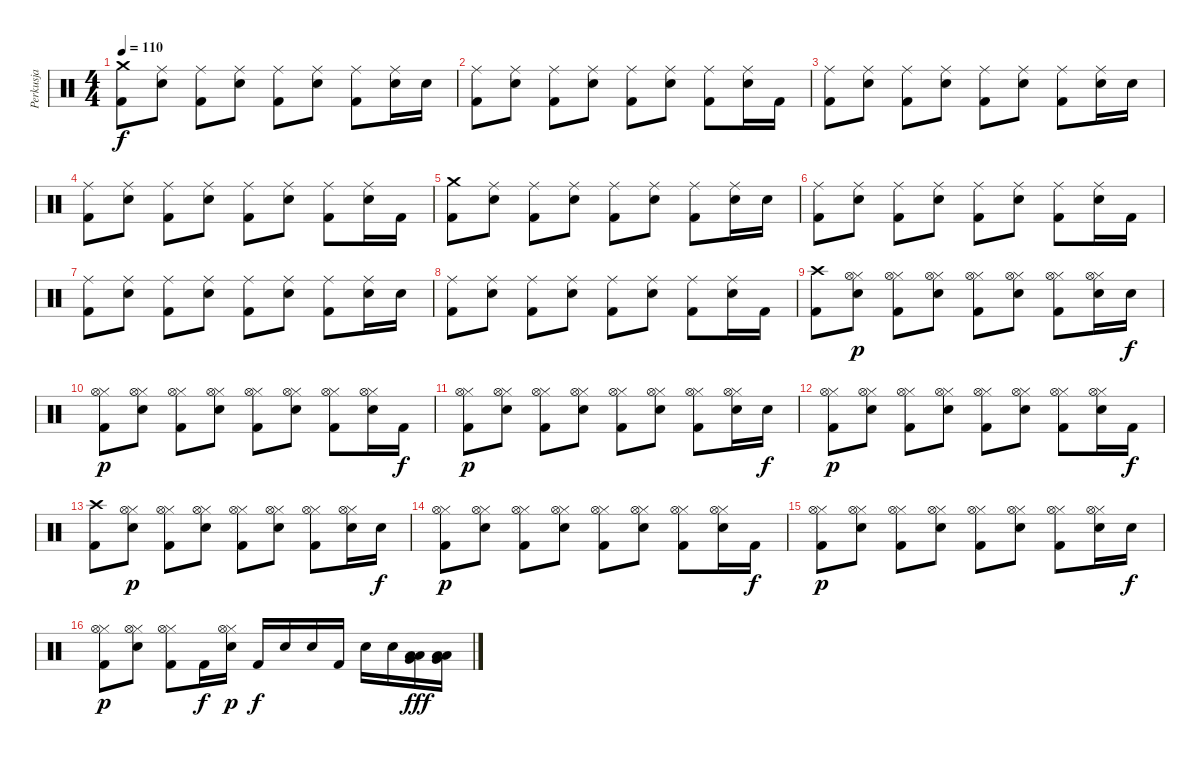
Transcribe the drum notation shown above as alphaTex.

\track ("Perkusja" "Perkusja") {instrument percussion}
\staff {score}
\articulation defaults
\ts (4 4)
\tempo 110
\clef neutral
\ks c
("Kick (hit) 2" "Crash medium (hit)").8{dy f} ("Electric Snare (hit)" "Ride (middle)").8 ("Kick (hit) 2" "Ride (middle)").8 ("Electric Snare (hit)" "Ride (middle)").8 ("Kick (hit) 2" "Ride (middle)").8 ("Electric Snare (hit)" "Ride (middle)").8 ("Kick (hit) 2" "Ride (middle)").8 ("Electric Snare (hit)" "Ride (middle)").16 "Electric Snare (hit)".16 |
("Kick (hit) 2" "Ride (middle)").8 ("Electric Snare (hit)" "Ride (middle)").8 ("Kick (hit) 2" "Ride (middle)").8 ("Electric Snare (hit)" "Ride (middle)").8 ("Kick (hit) 2" "Ride (middle)").8 ("Electric Snare (hit)" "Ride (middle)").8 ("Kick (hit) 2" "Ride (middle)").8 ("Electric Snare (hit)" "Ride (middle)").16 "Kick (hit) 2".16 |
("Kick (hit) 2" "Ride (middle)").8 ("Electric Snare (hit)" "Ride (middle)").8 ("Kick (hit) 2" "Ride (middle)").8 ("Electric Snare (hit)" "Ride (middle)").8 ("Kick (hit) 2" "Ride (middle)").8 ("Electric Snare (hit)" "Ride (middle)").8 ("Kick (hit) 2" "Ride (middle)").8 ("Electric Snare (hit)" "Ride (middle)").16 "Electric Snare (hit)".16 |
("Kick (hit) 2" "Ride (middle)").8 ("Electric Snare (hit)" "Ride (middle)").8 ("Kick (hit) 2" "Ride (middle)").8 ("Electric Snare (hit)" "Ride (middle)").8 ("Kick (hit) 2" "Ride (middle)").8 ("Electric Snare (hit)" "Ride (middle)").8 ("Kick (hit) 2" "Ride (middle)").8 ("Electric Snare (hit)" "Ride (middle)").16 "Kick (hit) 2".16 |
("Kick (hit) 2" "Crash medium (hit)").8 ("Electric Snare (hit)" "Ride (middle)").8 ("Kick (hit) 2" "Ride (middle)").8 ("Electric Snare (hit)" "Ride (middle)").8 ("Kick (hit) 2" "Ride (middle)").8 ("Electric Snare (hit)" "Ride (middle)").8 ("Kick (hit) 2" "Ride (middle)").8 ("Electric Snare (hit)" "Ride (middle)").16 "Electric Snare (hit)".16 |
("Kick (hit) 2" "Ride (middle)").8 ("Electric Snare (hit)" "Ride (middle)").8 ("Kick (hit) 2" "Ride (middle)").8 ("Electric Snare (hit)" "Ride (middle)").8 ("Kick (hit) 2" "Ride (middle)").8 ("Electric Snare (hit)" "Ride (middle)").8 ("Kick (hit) 2" "Ride (middle)").8 ("Electric Snare (hit)" "Ride (middle)").16 "Kick (hit) 2".16 |
("Kick (hit) 2" "Ride (middle)").8 ("Electric Snare (hit)" "Ride (middle)").8 ("Kick (hit) 2" "Ride (middle)").8 ("Electric Snare (hit)" "Ride (middle)").8 ("Kick (hit) 2" "Ride (middle)").8 ("Electric Snare (hit)" "Ride (middle)").8 ("Kick (hit) 2" "Ride (middle)").8 ("Electric Snare (hit)" "Ride (middle)").16 "Electric Snare (hit)".16 |
("Kick (hit) 2" "Ride (middle)").8 ("Electric Snare (hit)" "Ride (middle)").8 ("Kick (hit) 2" "Ride (middle)").8 ("Electric Snare (hit)" "Ride (middle)").8 ("Kick (hit) 2" "Ride (middle)").8 ("Electric Snare (hit)" "Ride (middle)").8 ("Kick (hit) 2" "Ride (middle)").8 ("Electric Snare (hit)" "Ride (middle)").16 "Kick (hit) 2".16 |
("Kick (hit) 2" "Crash high (hit)").8 ("Electric Snare (hit)" "Hi-Hat (closed)" "Hi-Hat (open)").8{dy p} ("Kick (hit) 2" "Hi-Hat (closed)" "Hi-Hat (open)").8 ("Electric Snare (hit)" "Hi-Hat (closed)" "Hi-Hat (open)").8 ("Kick (hit) 2" "Hi-Hat (closed)" "Hi-Hat (open)").8 ("Electric Snare (hit)" "Hi-Hat (closed)" "Hi-Hat (open)").8 ("Kick (hit) 2" "Hi-Hat (closed)" "Hi-Hat (open)").8 ("Electric Snare (hit)" "Hi-Hat (closed)" "Hi-Hat (open)").16 "Electric Snare (hit)".16{dy f} |
("Kick (hit) 2" "Hi-Hat (closed)" "Hi-Hat (open)").8{dy p} ("Electric Snare (hit)" "Hi-Hat (closed)" "Hi-Hat (open)").8 ("Kick (hit) 2" "Hi-Hat (closed)" "Hi-Hat (open)").8 ("Electric Snare (hit)" "Hi-Hat (closed)" "Hi-Hat (open)").8 ("Kick (hit) 2" "Hi-Hat (closed)" "Hi-Hat (open)").8 ("Electric Snare (hit)" "Hi-Hat (closed)" "Hi-Hat (open)").8 ("Kick (hit) 2" "Hi-Hat (closed)" "Hi-Hat (open)").8 ("Electric Snare (hit)" "Hi-Hat (closed)" "Hi-Hat (open)").16 "Kick (hit) 2".16{dy f} |
("Kick (hit) 2" "Hi-Hat (closed)" "Hi-Hat (open)").8{dy p} ("Electric Snare (hit)" "Hi-Hat (closed)" "Hi-Hat (open)").8 ("Kick (hit) 2" "Hi-Hat (closed)" "Hi-Hat (open)").8 ("Electric Snare (hit)" "Hi-Hat (closed)" "Hi-Hat (open)").8 ("Kick (hit) 2" "Hi-Hat (closed)" "Hi-Hat (open)").8 ("Electric Snare (hit)" "Hi-Hat (closed)" "Hi-Hat (open)").8 ("Kick (hit) 2" "Hi-Hat (closed)" "Hi-Hat (open)").8 ("Electric Snare (hit)" "Hi-Hat (closed)" "Hi-Hat (open)").16 "Electric Snare (hit)".16{dy f} |
("Kick (hit) 2" "Hi-Hat (closed)" "Hi-Hat (open)").8{dy p} ("Electric Snare (hit)" "Hi-Hat (closed)" "Hi-Hat (open)").8 ("Kick (hit) 2" "Hi-Hat (closed)" "Hi-Hat (open)").8 ("Electric Snare (hit)" "Hi-Hat (closed)" "Hi-Hat (open)").8 ("Kick (hit) 2" "Hi-Hat (closed)" "Hi-Hat (open)").8 ("Electric Snare (hit)" "Hi-Hat (closed)" "Hi-Hat (open)").8 ("Kick (hit) 2" "Hi-Hat (closed)" "Hi-Hat (open)").8 ("Electric Snare (hit)" "Hi-Hat (closed)" "Hi-Hat (open)").16 "Kick (hit) 2".16{dy f} |
("Kick (hit) 2" "Crash high (hit)").8 ("Electric Snare (hit)" "Hi-Hat (closed)" "Hi-Hat (open)").8{dy p} ("Kick (hit) 2" "Hi-Hat (closed)" "Hi-Hat (open)").8 ("Electric Snare (hit)" "Hi-Hat (closed)" "Hi-Hat (open)").8 ("Kick (hit) 2" "Hi-Hat (closed)" "Hi-Hat (open)").8 ("Electric Snare (hit)" "Hi-Hat (closed)" "Hi-Hat (open)").8 ("Kick (hit) 2" "Hi-Hat (closed)" "Hi-Hat (open)").8 ("Electric Snare (hit)" "Hi-Hat (closed)" "Hi-Hat (open)").16 "Electric Snare (hit)".16{dy f} |
("Kick (hit) 2" "Hi-Hat (closed)" "Hi-Hat (open)").8{dy p} ("Electric Snare (hit)" "Hi-Hat (closed)" "Hi-Hat (open)").8 ("Kick (hit) 2" "Hi-Hat (closed)" "Hi-Hat (open)").8 ("Electric Snare (hit)" "Hi-Hat (closed)" "Hi-Hat (open)").8 ("Kick (hit) 2" "Hi-Hat (closed)" "Hi-Hat (open)").8 ("Electric Snare (hit)" "Hi-Hat (closed)" "Hi-Hat (open)").8 ("Kick (hit) 2" "Hi-Hat (closed)" "Hi-Hat (open)").8 ("Electric Snare (hit)" "Hi-Hat (closed)" "Hi-Hat (open)").16 "Kick (hit) 2".16{dy f} |
("Kick (hit) 2" "Hi-Hat (closed)" "Hi-Hat (open)").8{dy p} ("Electric Snare (hit)" "Hi-Hat (closed)" "Hi-Hat (open)").8 ("Kick (hit) 2" "Hi-Hat (closed)" "Hi-Hat (open)").8 ("Electric Snare (hit)" "Hi-Hat (closed)" "Hi-Hat (open)").8 ("Kick (hit) 2" "Hi-Hat (closed)" "Hi-Hat (open)").8 ("Electric Snare (hit)" "Hi-Hat (closed)" "Hi-Hat (open)").8 ("Kick (hit) 2" "Hi-Hat (closed)" "Hi-Hat (open)").8 ("Electric Snare (hit)" "Hi-Hat (closed)" "Hi-Hat (open)").16 "Electric Snare (hit)".16{dy f} |
("Kick (hit) 2" "Hi-Hat (closed)" "Hi-Hat (open)").8{dy p} ("Electric Snare (hit)" "Hi-Hat (closed)" "Hi-Hat (open)").8 ("Kick (hit) 2" "Hi-Hat (closed)" "Hi-Hat (open)").8 "Kick (hit) 2".16{dy f} ("Electric Snare (hit)" "Hi-Hat (closed)" "Hi-Hat (open)").16{dy p} "Kick (hit) 2".16{dy f} "Electric Snare (hit)".16 "Electric Snare (hit)".16 "Kick (hit) 2".16 "Electric Snare (hit)".16 "Electric Snare (hit)".16 ("Low Floor Tom (hit)" "Very Low Tom (hit)" "Low Tom (hit)").16{dy fff} ("Low Floor Tom (hit)" "Very Low Tom (hit)" "Low Tom (hit)").16
